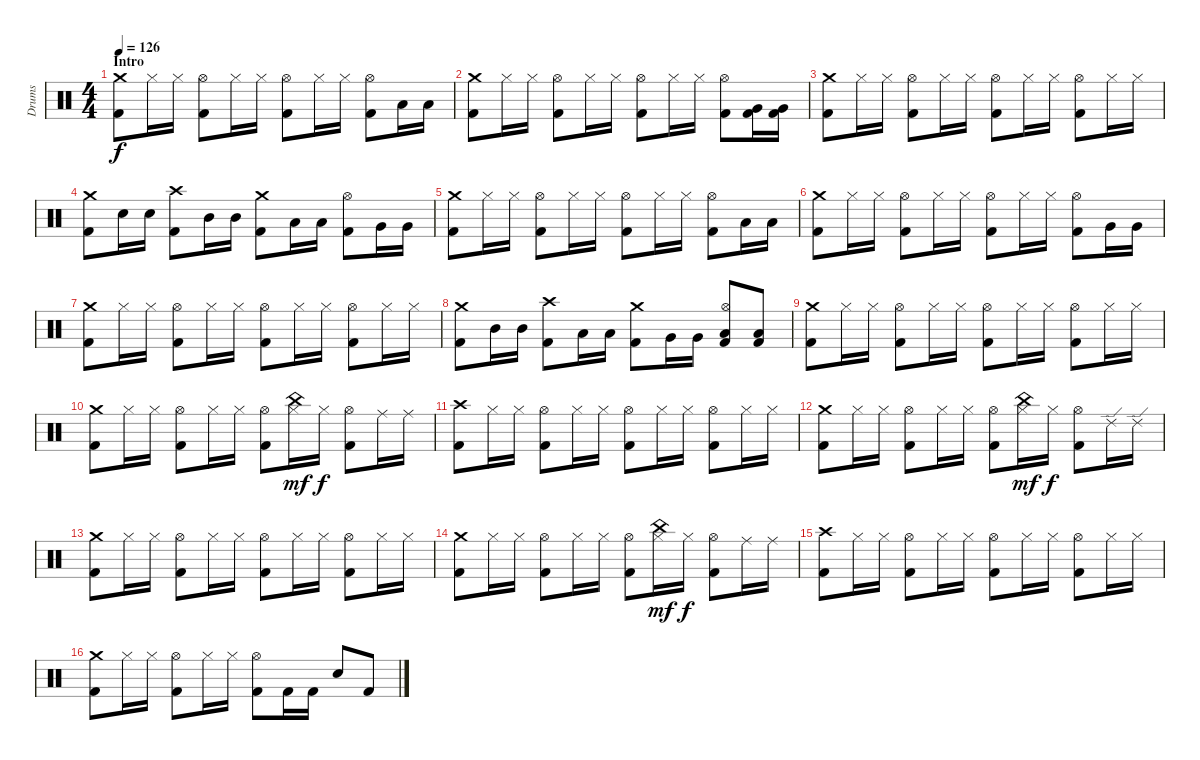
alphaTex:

\track ("Drums" "Drums") {instrument percussion}
\staff {score}
\articulation defaults
\ts (4 4)
\section ("" "Intro")
\tempo 126
\clef neutral
\ks c
("Kick (hit) 2" "Crash medium (hit)").8{dy f} "Hi-Hat (closed)".16 "Hi-Hat (closed)".16 ("Kick (hit) 2" "Hi-Hat (open)").8 "Hi-Hat (closed)".16 "Hi-Hat (closed)".16 ("Kick (hit) 2" "Hi-Hat (open)").8 "Hi-Hat (closed)".16 "Hi-Hat (closed)".16 ("Kick (hit) 2" "Hi-Hat (open)").8 "Low Tom (hit)".16 "Low Tom (hit)".16 |
("Kick (hit) 2" "Crash medium (hit)").8 "Hi-Hat (closed)".16 "Hi-Hat (closed)".16 ("Kick (hit) 2" "Hi-Hat (open)").8 "Hi-Hat (closed)".16 "Hi-Hat (closed)".16 ("Kick (hit) 2" "Hi-Hat (open)").8 "Hi-Hat (closed)".16 "Hi-Hat (closed)".16 ("Kick (hit) 2" "Hi-Hat (open)").8 ("Kick (hit) 2" "Very Low Tom (hit)").16 ("Kick (hit) 2" "Very Low Tom (hit)").16 |
("Kick (hit) 2" "Crash medium (hit)").8 "Hi-Hat (closed)".16 "Hi-Hat (closed)".16 ("Kick (hit) 2" "Hi-Hat (open)").8 "Hi-Hat (closed)".16 "Hi-Hat (closed)".16 ("Kick (hit) 2" "Hi-Hat (open)").8 "Hi-Hat (closed)".16 "Hi-Hat (closed)".16 ("Kick (hit) 2" "Hi-Hat (open)").8 "Hi-Hat (closed)".16 "Hi-Hat (closed)".16 |
("Kick (hit) 2" "Crash medium (hit)").8 "Electric Snare (hit)".16 "Electric Snare (hit)".16 ("Kick (hit) 2" "Crash high (hit)").8 "Mid Tom (hit)".16 "Mid Tom (hit)".16 ("Kick (hit) 2" "Crash medium (hit)").8 "Low Tom (hit)".16 "Low Tom (hit)".16 ("Kick (hit) 2" "Hi-Hat (open)").8 "Very Low Tom (hit)".16 "Very Low Tom (hit)".16 |
("Kick (hit) 2" "Crash medium (hit)").8 "Hi-Hat (closed)".16 "Hi-Hat (closed)".16 ("Kick (hit) 2" "Hi-Hat (open)").8 "Hi-Hat (closed)".16 "Hi-Hat (closed)".16 ("Kick (hit) 2" "Hi-Hat (open)").8 "Hi-Hat (closed)".16 "Hi-Hat (closed)".16 ("Kick (hit) 2" "Hi-Hat (open)").8 "Low Tom (hit)".16 "Low Tom (hit)".16 |
("Kick (hit) 2" "Crash medium (hit)").8 "Hi-Hat (closed)".16 "Hi-Hat (closed)".16 ("Kick (hit) 2" "Hi-Hat (open)").8 "Hi-Hat (closed)".16 "Hi-Hat (closed)".16 ("Kick (hit) 2" "Hi-Hat (open)").8 "Hi-Hat (closed)".16 "Hi-Hat (closed)".16 ("Kick (hit) 2" "Hi-Hat (open)").8 "Very Low Tom (hit)".16 "Very Low Tom (hit)".16 |
("Kick (hit) 2" "Crash medium (hit)").8 "Hi-Hat (closed)".16 "Hi-Hat (closed)".16 ("Kick (hit) 2" "Hi-Hat (open)").8 "Hi-Hat (closed)".16 "Hi-Hat (closed)".16 ("Kick (hit) 2" "Hi-Hat (open)").8 "Hi-Hat (closed)".16 "Hi-Hat (closed)".16 ("Kick (hit) 2" "Hi-Hat (open)").8 "Hi-Hat (closed)".16 "Hi-Hat (closed)".16 |
("Kick (hit) 2" "Crash medium (hit)").8 "Mid Tom (hit)".16 "Mid Tom (hit)".16 ("Kick (hit) 2" "Crash high (hit)").8 "Low Tom (hit)".16 "Low Tom (hit)".16 ("Kick (hit) 2" "Crash medium (hit)").8 "Very Low Tom (hit)".16 "Very Low Tom (hit)".16 ("Kick (hit) 2" "Low Floor Tom (hit)" "Hi-Hat (open)").8 ("Kick (hit) 2" "Low Floor Tom (hit)").8 |
("Kick (hit) 2" "Crash medium (hit)").8 "Hi-Hat (closed)".16 "Hi-Hat (closed)".16 ("Kick (hit) 2" "Hi-Hat (open)").8 "Hi-Hat (closed)".16 "Hi-Hat (closed)".16 ("Kick (hit) 2" "Hi-Hat (open)").8 "Hi-Hat (closed)".16 "Hi-Hat (closed)".16 ("Kick (hit) 2" "Hi-Hat (open)").8 "Hi-Hat (closed)".16 "Hi-Hat (closed)".16 |
("Kick (hit) 2" "Crash medium (hit)").8 "Hi-Hat (closed)".16 "Hi-Hat (closed)".16 ("Kick (hit) 2" "Hi-Hat (open)").8 "Hi-Hat (closed)".16 "Hi-Hat (closed)".16 ("Kick (hit) 2" "Hi-Hat (open)").8 ("Hi-Hat (closed)" "China (hit)").16{dy mf} "Hi-Hat (closed)".16{dy f} ("Kick (hit) 2" "Hi-Hat (open)").8 "Ride (middle)".16 "Ride (middle)".16 |
("Kick (hit) 2" "Crash high (hit)").8 "Hi-Hat (closed)".16 "Hi-Hat (closed)".16 ("Kick (hit) 2" "Hi-Hat (open)").8 "Hi-Hat (closed)".16 "Hi-Hat (closed)".16 ("Kick (hit) 2" "Hi-Hat (open)").8 "Hi-Hat (closed)".16 "Hi-Hat (closed)".16 ("Kick (hit) 2" "Hi-Hat (open)").8 "Hi-Hat (closed)".16 "Hi-Hat (closed)".16 |
("Kick (hit) 2" "Crash medium (hit)").8 "Hi-Hat (closed)".16 "Hi-Hat (closed)".16 ("Kick (hit) 2" "Hi-Hat (open)").8 "Hi-Hat (closed)".16 "Hi-Hat (closed)".16 ("Kick (hit) 2" "Hi-Hat (open)").8 ("Hi-Hat (closed)" "China (hit)").16{dy mf} "Hi-Hat (closed)".16{dy f} ("Kick (hit) 2" "Hi-Hat (open)").8 "Ride (edge) 2".16 "Ride (edge) 2".16 |
("Kick (hit) 2" "Crash medium (hit)").8 "Hi-Hat (closed)".16 "Hi-Hat (closed)".16 ("Kick (hit) 2" "Hi-Hat (open)").8 "Hi-Hat (closed)".16 "Hi-Hat (closed)".16 ("Kick (hit) 2" "Hi-Hat (open)").8 "Hi-Hat (closed)".16 "Hi-Hat (closed)".16 ("Kick (hit) 2" "Hi-Hat (open)").8 "Hi-Hat (closed)".16 "Hi-Hat (closed)".16 |
("Kick (hit) 2" "Crash medium (hit)").8 "Hi-Hat (closed)".16 "Hi-Hat (closed)".16 ("Kick (hit) 2" "Hi-Hat (open)").8 "Hi-Hat (closed)".16 "Hi-Hat (closed)".16 ("Kick (hit) 2" "Hi-Hat (open)").8 ("Hi-Hat (closed)" "China (hit)").16{dy mf} "Hi-Hat (closed)".16{dy f} ("Kick (hit) 2" "Hi-Hat (open)").8 "Ride (middle)".16 "Ride (middle)".16 |
("Kick (hit) 2" "Crash high (hit)").8 "Hi-Hat (closed)".16 "Hi-Hat (closed)".16 ("Kick (hit) 2" "Hi-Hat (open)").8 "Hi-Hat (closed)".16 "Hi-Hat (closed)".16 ("Kick (hit) 2" "Hi-Hat (open)").8 "Hi-Hat (closed)".16 "Hi-Hat (closed)".16 ("Kick (hit) 2" "Hi-Hat (open)").8 "Hi-Hat (closed)".16 "Hi-Hat (closed)".16 |
("Kick (hit) 2" "Crash medium (hit)").8 "Hi-Hat (closed)".16 "Hi-Hat (closed)".16 ("Kick (hit) 2" "Hi-Hat (open)").8 "Hi-Hat (closed)".16 "Hi-Hat (closed)".16 ("Kick (hit) 2" "Hi-Hat (open)").8 "Kick (hit) 2".16 "Kick (hit) 2".16 "Electric Snare (hit)".8 "Kick (hit) 2".8
